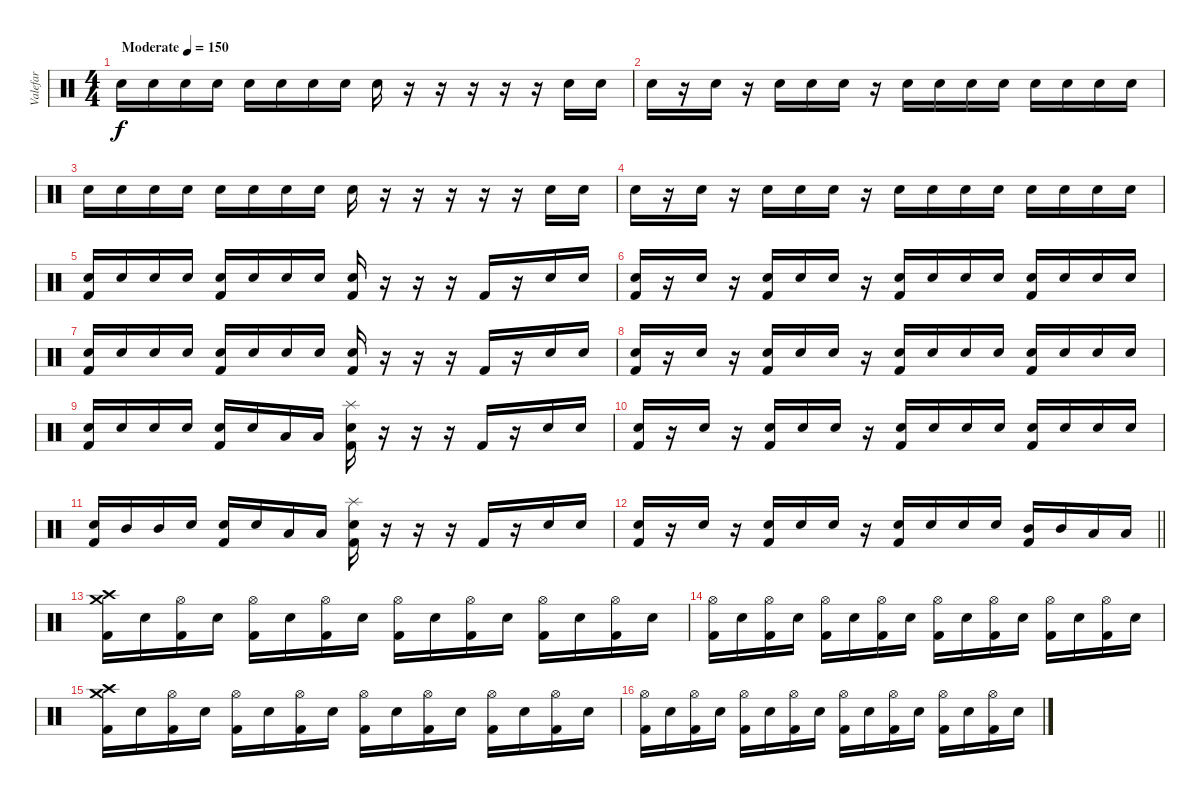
\track ("Valefar" "Valefar") {instrument percussion}
\staff {score}
\articulation defaults
\ts (4 4)
\tempo (150 "Moderate")
\clef neutral
\ks c "Electric Snare (hit)".16{dy f} "Electric Snare (hit)".16 "Electric Snare (hit)".16 "Electric Snare (hit)".16 "Electric Snare (hit)".16 "Electric Snare (hit)".16 "Electric Snare (hit)".16 "Electric Snare (hit)".16 "Electric Snare (hit)".16
r.16 r.16 r.16 r.16 r.16 "Electric Snare (hit)".16 "Electric Snare (hit)".16 |
"Electric Snare (hit)".16 r.16 "Electric Snare (hit)".16 r.16 "Electric Snare (hit)".16 "Electric Snare (hit)".16 "Electric Snare (hit)".16 r.16 "Electric Snare (hit)".16 "Electric Snare (hit)".16 "Electric Snare (hit)".16 "Electric Snare (hit)".16 "Electric Snare (hit)".16 "Electric Snare (hit)".16 "Electric Snare (hit)".16 "Electric Snare (hit)".16 |
"Electric Snare (hit)".16 "Electric Snare (hit)".16 "Electric Snare (hit)".16 "Electric Snare (hit)".16 "Electric Snare (hit)".16 "Electric Snare (hit)".16 "Electric Snare (hit)".16 "Electric Snare (hit)".16 "Electric Snare (hit)".16 r.16 r.16 r.16 r.16 r.16 "Electric Snare (hit)".16 "Electric Snare (hit)".16 |
"Electric Snare (hit)".16 r.16 "Electric Snare (hit)".16 r.16 "Electric Snare (hit)".16 "Electric Snare (hit)".16 "Electric Snare (hit)".16 r.16 "Electric Snare (hit)".16 "Electric Snare (hit)".16 "Electric Snare (hit)".16 "Electric Snare (hit)".16 "Electric Snare (hit)".16 "Electric Snare (hit)".16 "Electric Snare (hit)".16 "Electric Snare (hit)".16 |
("Electric Snare (hit)" "Kick (hit) 2").16 "Electric Snare (hit)".16 "Electric Snare (hit)".16 "Electric Snare (hit)".16 ("Electric Snare (hit)" "Kick (hit) 2").16 "Electric Snare (hit)".16 "Electric Snare (hit)".16 "Electric Snare (hit)".16 ("Electric Snare (hit)" "Kick (hit) 2").16 r.16 r.16 r.16 "Kick (hit) 2".16 r.16 "Electric Snare (hit)".16 "Electric Snare (hit)".16 |
("Electric Snare (hit)" "Kick (hit) 2").16 r.16 "Electric Snare (hit)".16 r.16 ("Electric Snare (hit)" "Kick (hit) 2").16 "Electric Snare (hit)".16 "Electric Snare (hit)".16 r.16 ("Electric Snare (hit)" "Kick (hit) 2").16 "Electric Snare (hit)".16 "Electric Snare (hit)".16 "Electric Snare (hit)".16 ("Electric Snare (hit)" "Kick (hit) 2").16 "Electric Snare (hit)".16 "Electric Snare (hit)".16 "Electric Snare (hit)".16 |
("Electric Snare (hit)" "Kick (hit) 2").16 "Electric Snare (hit)".16 "Electric Snare (hit)".16 "Electric Snare (hit)".16 ("Electric Snare (hit)" "Kick (hit) 2").16 "Electric Snare (hit)".16 "Electric Snare (hit)".16 "Electric Snare (hit)".16 ("Electric Snare (hit)" "Kick (hit) 2").16 r.16 r.16 r.16 "Kick (hit) 2".16 r.16 "Electric Snare (hit)".16 "Electric Snare (hit)".16 |
("Electric Snare (hit)" "Kick (hit) 2").16 r.16 "Electric Snare (hit)".16 r.16 ("Electric Snare (hit)" "Kick (hit) 2").16 "Electric Snare (hit)".16 "Electric Snare (hit)".16 r.16 ("Electric Snare (hit)" "Kick (hit) 2").16 "Electric Snare (hit)".16 "Electric Snare (hit)".16 "Electric Snare (hit)".16 ("Electric Snare (hit)" "Kick (hit) 2").16 "Electric Snare (hit)".16 "Electric Snare (hit)".16 "Electric Snare (hit)".16 |
("Electric Snare (hit)" "Kick (hit) 2").16 "Electric Snare (hit)".16 "Electric Snare (hit)".16 "Electric Snare (hit)".16 ("Electric Snare (hit)" "Kick (hit) 2").16 "Electric Snare (hit)".16 "Low Tom (hit)".16 "Low Tom (hit)".16 ("Splash (hit)" "Electric Snare (hit)" "Kick (hit) 2").16 r.16 r.16 r.16 "Kick (hit) 2".16 r.16 "Electric Snare (hit)".16 "Electric Snare (hit)".16 |
("Electric Snare (hit)" "Kick (hit) 2").16 r.16 "Electric Snare (hit)".16 r.16 ("Electric Snare (hit)" "Kick (hit) 2").16 "Electric Snare (hit)".16 "Electric Snare (hit)".16 r.16 ("Electric Snare (hit)" "Kick (hit) 2").16 "Electric Snare (hit)".16 "Electric Snare (hit)".16 "Electric Snare (hit)".16 ("Electric Snare (hit)" "Kick (hit) 2").16 "Electric Snare (hit)".16 "Electric Snare (hit)".16 "Electric Snare (hit)".16 |
("Electric Snare (hit)" "Kick (hit) 2").16 "Mid Tom (hit)".16 "Mid Tom (hit)".16 "Electric Snare (hit)".16 ("Electric Snare (hit)" "Kick (hit) 2").16 "Electric Snare (hit)".16 "Low Tom (hit)".16 "Low Tom (hit)".16 ("Splash (hit)" "Electric Snare (hit)" "Kick (hit) 2").16 r.16 r.16 r.16 "Kick (hit) 2".16 r.16 "Electric Snare (hit)".16 "Electric Snare (hit)".16 |
\barLineRight lightlight
("Electric Snare (hit)" "Kick (hit) 2").16 r.16 "Electric Snare (hit)".16 r.16 ("Electric Snare (hit)" "Kick (hit) 2").16 "Electric Snare (hit)".16 "Electric Snare (hit)".16 r.16 ("Electric Snare (hit)" "Kick (hit) 2").16 "Electric Snare (hit)".16 "Electric Snare (hit)".16 "Electric Snare (hit)".16 ("Mid Tom (hit)" "Kick (hit) 2").16 "Mid Tom (hit)".16 "Low Tom (hit)".16 "Low Tom (hit)".16 |
("Crash medium (hit)" "Crash high (hit)" "Kick (hit) 2").16 "Electric Snare (hit)".16 ("Hi-Hat (open)" "Kick (hit) 2").16 "Electric Snare (hit)".16 ("Hi-Hat (open)" "Kick (hit) 2").16 "Electric Snare (hit)".16 ("Hi-Hat (open)" "Kick (hit) 2").16 "Electric Snare (hit)".16 ("Hi-Hat (open)" "Kick (hit) 2").16 "Electric Snare (hit)".16 ("Hi-Hat (open)" "Kick (hit) 2").16 "Electric Snare (hit)".16 ("Hi-Hat (open)" "Kick (hit) 2").16 "Electric Snare (hit)".16 ("Hi-Hat (open)" "Kick (hit) 2").16 "Electric Snare (hit)".16 |
("Hi-Hat (open)" "Kick (hit) 2").16 "Electric Snare (hit)".16 ("Hi-Hat (open)" "Kick (hit) 2").16 "Electric Snare (hit)".16 ("Hi-Hat (open)" "Kick (hit) 2").16 "Electric Snare (hit)".16 ("Hi-Hat (open)" "Kick (hit) 2").16 "Electric Snare (hit)".16 ("Hi-Hat (open)" "Kick (hit) 2").16 "Electric Snare (hit)".16 ("Hi-Hat (open)" "Kick (hit) 2").16 "Electric Snare (hit)".16 ("Hi-Hat (open)" "Kick (hit) 2").16 "Electric Snare (hit)".16 ("Hi-Hat (open)" "Kick (hit) 2").16 "Electric Snare (hit)".16 |
("Crash medium (hit)" "Crash high (hit)" "Kick (hit) 2").16 "Electric Snare (hit)".16 ("Hi-Hat (open)" "Kick (hit) 2").16 "Electric Snare (hit)".16 ("Hi-Hat (open)" "Kick (hit) 2").16 "Electric Snare (hit)".16 ("Hi-Hat (open)" "Kick (hit) 2").16 "Electric Snare (hit)".16 ("Hi-Hat (open)" "Kick (hit) 2").16 "Electric Snare (hit)".16 ("Hi-Hat (open)" "Kick (hit) 2").16 "Electric Snare (hit)".16 ("Hi-Hat (open)" "Kick (hit) 2").16 "Electric Snare (hit)".16 ("Hi-Hat (open)" "Kick (hit) 2").16 "Electric Snare (hit)".16 |
("Hi-Hat (open)" "Kick (hit) 2").16 "Electric Snare (hit)".16 ("Hi-Hat (open)" "Kick (hit) 2").16 "Electric Snare (hit)".16 ("Hi-Hat (open)" "Kick (hit) 2").16 "Electric Snare (hit)".16 ("Hi-Hat (open)" "Kick (hit) 2").16 "Electric Snare (hit)".16 ("Hi-Hat (open)" "Kick (hit) 2").16 "Electric Snare (hit)".16 ("Hi-Hat (open)" "Kick (hit) 2").16 "Electric Snare (hit)".16 ("Hi-Hat (open)" "Kick (hit) 2").16 "Electric Snare (hit)".16 ("Hi-Hat (open)" "Kick (hit) 2").16 "Electric Snare (hit)".16
